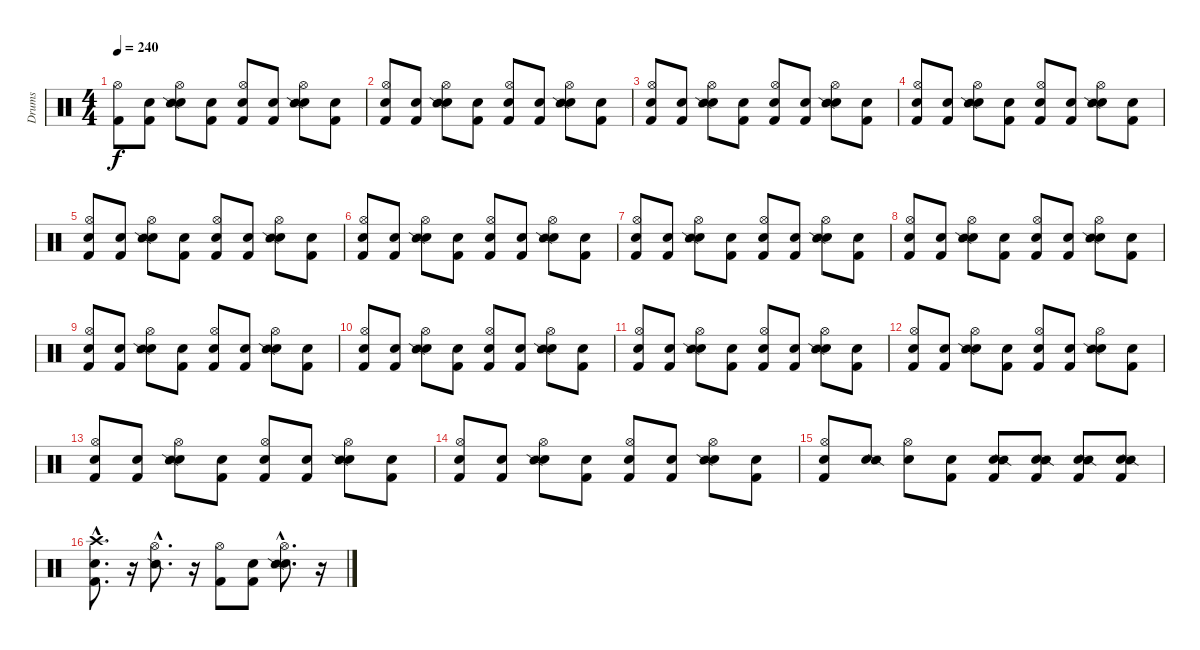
\track ("Drums" "Drums") {instrument percussion}
\staff {score}
\articulation defaults
\ts (4 4)
\tempo 240
\clef neutral
\ks c
("Kick (hit) 2" "Hi-Hat (open)").8{dy f} ("Snare (hit)" "Kick (hit) 2").8 ("Snare (hit)" "Hi-Hat (open)" "Snare (side stick) 2").8 ("Snare (hit)" "Kick (hit) 2").8 ("Snare (hit)" "Kick (hit) 2" "Hi-Hat (open)").8 ("Snare (hit)" "Kick (hit) 2").8 ("Snare (hit)" "Hi-Hat (open)" "Snare (side stick) 2").8 ("Snare (hit)" "Kick (hit) 2").8 |
("Snare (hit)" "Kick (hit) 2" "Hi-Hat (open)").8 ("Snare (hit)" "Kick (hit) 2").8 ("Snare (hit)" "Hi-Hat (open)" "Snare (side stick) 2").8 ("Snare (hit)" "Kick (hit) 2").8 ("Snare (hit)" "Kick (hit) 2" "Hi-Hat (open)").8 ("Snare (hit)" "Kick (hit) 2").8 ("Snare (hit)" "Hi-Hat (open)" "Snare (side stick) 2").8 ("Snare (hit)" "Kick (hit) 2").8 |
("Snare (hit)" "Kick (hit) 2" "Hi-Hat (open)").8 ("Snare (hit)" "Kick (hit) 2").8 ("Snare (hit)" "Hi-Hat (open)" "Snare (side stick) 2").8 ("Snare (hit)" "Kick (hit) 2").8 ("Snare (hit)" "Kick (hit) 2" "Hi-Hat (open)").8 ("Snare (hit)" "Kick (hit) 2").8 ("Snare (hit)" "Hi-Hat (open)" "Snare (side stick) 2").8 ("Snare (hit)" "Kick (hit) 2").8 |
("Snare (hit)" "Kick (hit) 2" "Hi-Hat (open)").8 ("Snare (hit)" "Kick (hit) 2").8 ("Snare (hit)" "Hi-Hat (open)" "Snare (side stick) 2").8 ("Snare (hit)" "Kick (hit) 2").8 ("Snare (hit)" "Kick (hit) 2" "Hi-Hat (open)").8 ("Snare (hit)" "Kick (hit) 2").8 ("Snare (hit)" "Hi-Hat (open)" "Snare (side stick) 2").8 ("Snare (hit)" "Kick (hit) 2").8 |
("Snare (hit)" "Kick (hit) 2" "Hi-Hat (open)").8 ("Snare (hit)" "Kick (hit) 2").8 ("Snare (hit)" "Hi-Hat (open)" "Snare (side stick) 2").8 ("Snare (hit)" "Kick (hit) 2").8 ("Snare (hit)" "Kick (hit) 2" "Hi-Hat (open)").8 ("Snare (hit)" "Kick (hit) 2").8 ("Snare (hit)" "Hi-Hat (open)" "Snare (side stick) 2").8 ("Snare (hit)" "Kick (hit) 2").8 |
("Snare (hit)" "Kick (hit) 2" "Hi-Hat (open)").8 ("Snare (hit)" "Kick (hit) 2").8 ("Snare (hit)" "Hi-Hat (open)" "Snare (side stick) 2").8 ("Snare (hit)" "Kick (hit) 2").8 ("Snare (hit)" "Kick (hit) 2" "Hi-Hat (open)").8 ("Snare (hit)" "Kick (hit) 2").8 ("Snare (hit)" "Hi-Hat (open)" "Snare (side stick) 2").8 ("Snare (hit)" "Kick (hit) 2").8 |
("Snare (hit)" "Kick (hit) 2" "Hi-Hat (open)").8 ("Snare (hit)" "Kick (hit) 2").8 ("Snare (hit)" "Hi-Hat (open)" "Snare (side stick) 2").8 ("Snare (hit)" "Kick (hit) 2").8 ("Snare (hit)" "Kick (hit) 2" "Hi-Hat (open)").8 ("Snare (hit)" "Kick (hit) 2").8 ("Snare (hit)" "Hi-Hat (open)" "Snare (side stick) 2").8 ("Snare (hit)" "Kick (hit) 2").8 |
("Snare (hit)" "Kick (hit) 2" "Hi-Hat (open)").8 ("Snare (hit)" "Kick (hit) 2").8 ("Snare (hit)" "Hi-Hat (open)" "Snare (side stick) 2").8 ("Snare (hit)" "Kick (hit) 2").8 ("Snare (hit)" "Kick (hit) 2" "Hi-Hat (open)").8 ("Snare (hit)" "Kick (hit) 2").8 ("Snare (hit)" "Hi-Hat (open)" "Snare (side stick) 2").8 ("Snare (hit)" "Kick (hit) 2").8 |
("Snare (hit)" "Kick (hit) 2" "Hi-Hat (open)").8 ("Snare (hit)" "Kick (hit) 2").8 ("Snare (hit)" "Hi-Hat (open)" "Snare (side stick) 2").8 ("Snare (hit)" "Kick (hit) 2").8 ("Snare (hit)" "Kick (hit) 2" "Hi-Hat (open)").8 ("Snare (hit)" "Kick (hit) 2").8 ("Snare (hit)" "Hi-Hat (open)" "Snare (side stick) 2").8 ("Snare (hit)" "Kick (hit) 2").8 |
("Snare (hit)" "Kick (hit) 2" "Hi-Hat (open)").8 ("Snare (hit)" "Kick (hit) 2").8 ("Snare (hit)" "Hi-Hat (open)" "Snare (side stick) 2").8 ("Snare (hit)" "Kick (hit) 2").8 ("Snare (hit)" "Kick (hit) 2" "Hi-Hat (open)").8 ("Snare (hit)" "Kick (hit) 2").8 ("Snare (hit)" "Hi-Hat (open)" "Snare (side stick) 2").8 ("Snare (hit)" "Kick (hit) 2").8 |
("Snare (hit)" "Kick (hit) 2" "Hi-Hat (open)").8 ("Snare (hit)" "Kick (hit) 2").8 ("Snare (hit)" "Hi-Hat (open)" "Snare (side stick) 2").8 ("Snare (hit)" "Kick (hit) 2").8 ("Snare (hit)" "Kick (hit) 2" "Hi-Hat (open)").8 ("Snare (hit)" "Kick (hit) 2").8 ("Snare (hit)" "Hi-Hat (open)" "Snare (side stick) 2").8 ("Snare (hit)" "Kick (hit) 2").8 |
("Snare (hit)" "Kick (hit) 2" "Hi-Hat (open)").8 ("Snare (hit)" "Kick (hit) 2").8 ("Snare (hit)" "Hi-Hat (open)" "Snare (side stick) 2").8 ("Snare (hit)" "Kick (hit) 2").8 ("Snare (hit)" "Kick (hit) 2" "Hi-Hat (open)").8 ("Snare (hit)" "Kick (hit) 2").8 ("Snare (hit)" "Hi-Hat (open)" "Snare (side stick) 2").8 ("Snare (hit)" "Kick (hit) 2").8 |
("Snare (hit)" "Kick (hit) 2" "Hi-Hat (open)").8 ("Snare (hit)" "Kick (hit) 2").8 ("Snare (hit)" "Hi-Hat (open)" "Snare (side stick) 2").8 ("Snare (hit)" "Kick (hit) 2").8 ("Snare (hit)" "Kick (hit) 2" "Hi-Hat (open)").8 ("Snare (hit)" "Kick (hit) 2").8 ("Snare (hit)" "Hi-Hat (open)" "Snare (side stick) 2").8 ("Snare (hit)" "Kick (hit) 2").8 |
("Snare (hit)" "Kick (hit) 2" "Hi-Hat (open)").8 ("Snare (hit)" "Kick (hit) 2").8 ("Snare (hit)" "Hi-Hat (open)" "Snare (side stick) 2").8 ("Snare (hit)" "Kick (hit) 2").8 ("Snare (hit)" "Kick (hit) 2" "Hi-Hat (open)").8 ("Snare (hit)" "Kick (hit) 2").8 ("Snare (hit)" "Hi-Hat (open)" "Snare (side stick) 2").8 ("Snare (hit)" "Kick (hit) 2").8 |
("Snare (hit)" "Kick (hit) 2" "Hi-Hat (open)").8 ("Snare (hit)" "Snare (side stick) 2").8 ("Snare (hit)" "Hi-Hat (open)").8 ("Snare (hit)" "Kick (hit) 2").8 ("Snare (hit)" "Kick (hit) 2" "Snare (side stick) 2").8 ("Snare (hit)" "Kick (hit) 2" "Snare (side stick) 2").8 ("Snare (hit)" "Kick (hit) 2" "Snare (side stick) 2").8 ("Snare (hit)" "Kick (hit) 2" "Snare (side stick) 2").8 |
("Snare (hit)"{hac} "Kick (hit) 2"{hac} "Crash high (hit)"{hac}).8{d} r.16 ("Hi-Hat (open)"{hac} "Snare (side stick) 2"{hac}).8{d} r.16 ("Kick (hit) 2" "Hi-Hat (open)").8 ("Snare (hit)" "Kick (hit) 2").8 ("Snare (hit)"{hac} "Hi-Hat (open)"{hac} "Snare (side stick) 2"{hac}).8{d} r.16
